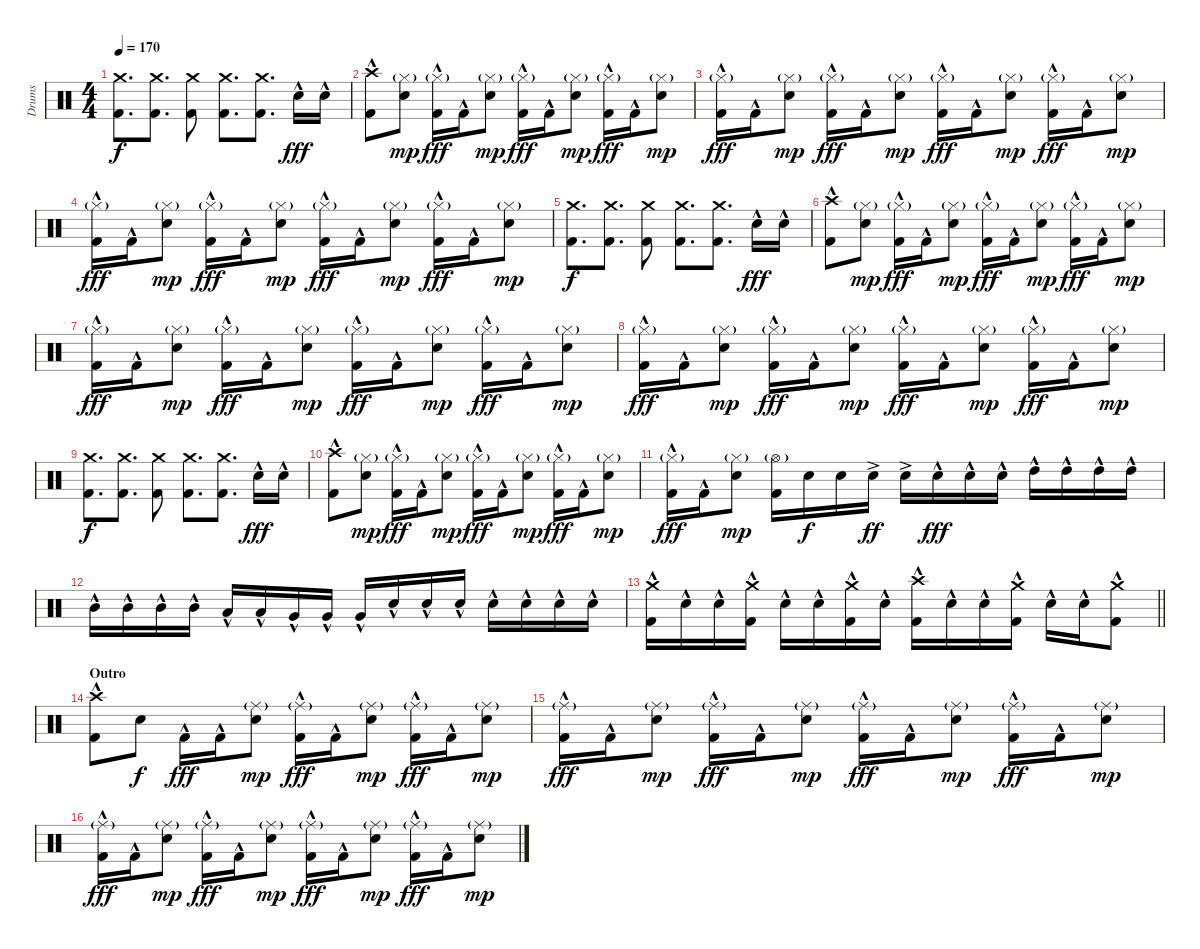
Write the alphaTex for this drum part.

\track ("Drums" "Drums") {instrument percussion}
\staff {score}
\articulation defaults
\ts (4 4)
\tempo 170
\clef neutral
\ks c
("Crash medium (hit)" "Kick (hit) 2").8{d dy f} ("Crash medium (hit)" "Kick (hit) 2").8{d} ("Crash medium (hit)" "Kick (hit) 2").8 ("Crash medium (hit)" "Kick (hit) 2").8{d} ("Crash medium (hit)" "Kick (hit) 2").8{d} "Snare (hit) 2"{hac}.16{dy fff} "Snare (hit) 2"{hac}.16 |
("Crash high (hit)" "Kick (hit) 2"{hac}).8 ("Hi-Hat (closed)"{g} "Snare (hit) 2").8{dy mp} ("Hi-Hat (closed)"{g} "Kick (hit) 2"{hac}).16{dy fff} "Kick (hit) 2"{hac}.16 ("Hi-Hat (closed)"{g} "Snare (hit) 2").8{dy mp} ("Hi-Hat (closed)"{g} "Kick (hit) 2"{hac}).16{dy fff} "Kick (hit) 2"{hac}.16 ("Hi-Hat (closed)"{g} "Snare (hit) 2").8{dy mp} ("Hi-Hat (closed)"{g} "Kick (hit) 2"{hac}).16{dy fff} "Kick (hit) 2"{hac}.16 ("Hi-Hat (closed)"{g} "Snare (hit) 2").8{dy mp} |
("Hi-Hat (closed)"{g} "Kick (hit) 2"{hac}).16{dy fff} "Kick (hit) 2"{hac}.16 ("Hi-Hat (closed)"{g} "Snare (hit) 2").8{dy mp} ("Hi-Hat (closed)"{g} "Kick (hit) 2"{hac}).16{dy fff} "Kick (hit) 2"{hac}.16 ("Hi-Hat (closed)"{g} "Snare (hit) 2").8{dy mp} ("Hi-Hat (closed)"{g} "Kick (hit) 2"{hac}).16{dy fff} "Kick (hit) 2"{hac}.16 ("Hi-Hat (closed)"{g} "Snare (hit) 2").8{dy mp} ("Hi-Hat (closed)"{g} "Kick (hit) 2"{hac}).16{dy fff} "Kick (hit) 2"{hac}.16 ("Hi-Hat (closed)"{g} "Snare (hit) 2").8{dy mp} |
("Hi-Hat (closed)"{g} "Kick (hit) 2"{hac}).16{dy fff} "Kick (hit) 2"{hac}.16 ("Hi-Hat (closed)"{g} "Snare (hit) 2").8{dy mp} ("Hi-Hat (closed)"{g} "Kick (hit) 2"{hac}).16{dy fff} "Kick (hit) 2"{hac}.16 ("Hi-Hat (closed)"{g} "Snare (hit) 2").8{dy mp} ("Hi-Hat (closed)"{g} "Kick (hit) 2"{hac}).16{dy fff} "Kick (hit) 2"{hac}.16 ("Hi-Hat (closed)"{g} "Snare (hit) 2").8{dy mp} ("Hi-Hat (closed)"{g} "Kick (hit) 2"{hac}).16{dy fff} "Kick (hit) 2"{hac}.16 ("Hi-Hat (closed)"{g} "Snare (hit) 2").8{dy mp} |
("Crash medium (hit)" "Kick (hit) 2").8{d dy f} ("Crash medium (hit)" "Kick (hit) 2").8{d} ("Crash medium (hit)" "Kick (hit) 2").8 ("Crash medium (hit)" "Kick (hit) 2").8{d} ("Crash medium (hit)" "Kick (hit) 2").8{d} "Snare (hit) 2"{hac}.16{dy fff} "Snare (hit) 2"{hac}.16 |
("Crash high (hit)" "Kick (hit) 2"{hac}).8 ("Hi-Hat (closed)"{g} "Snare (hit) 2").8{dy mp} ("Hi-Hat (closed)"{g} "Kick (hit) 2"{hac}).16{dy fff} "Kick (hit) 2"{hac}.16 ("Hi-Hat (closed)"{g} "Snare (hit) 2").8{dy mp} ("Hi-Hat (closed)"{g} "Kick (hit) 2"{hac}).16{dy fff} "Kick (hit) 2"{hac}.16 ("Hi-Hat (closed)"{g} "Snare (hit) 2").8{dy mp} ("Hi-Hat (closed)"{g} "Kick (hit) 2"{hac}).16{dy fff} "Kick (hit) 2"{hac}.16 ("Hi-Hat (closed)"{g} "Snare (hit) 2").8{dy mp} |
("Hi-Hat (closed)"{g} "Kick (hit) 2"{hac}).16{dy fff} "Kick (hit) 2"{hac}.16 ("Hi-Hat (closed)"{g} "Snare (hit) 2").8{dy mp} ("Hi-Hat (closed)"{g} "Kick (hit) 2"{hac}).16{dy fff} "Kick (hit) 2"{hac}.16 ("Hi-Hat (closed)"{g} "Snare (hit) 2").8{dy mp} ("Hi-Hat (closed)"{g} "Kick (hit) 2"{hac}).16{dy fff} "Kick (hit) 2"{hac}.16 ("Hi-Hat (closed)"{g} "Snare (hit) 2").8{dy mp} ("Hi-Hat (closed)"{g} "Kick (hit) 2"{hac}).16{dy fff} "Kick (hit) 2"{hac}.16 ("Hi-Hat (closed)"{g} "Snare (hit) 2").8{dy mp} |
("Hi-Hat (closed)"{g} "Kick (hit) 2"{hac}).16{dy fff} "Kick (hit) 2"{hac}.16 ("Hi-Hat (closed)"{g} "Snare (hit) 2").8{dy mp} ("Hi-Hat (closed)"{g} "Kick (hit) 2"{hac}).16{dy fff} "Kick (hit) 2"{hac}.16 ("Hi-Hat (closed)"{g} "Snare (hit) 2").8{dy mp} ("Hi-Hat (closed)"{g} "Kick (hit) 2"{hac}).16{dy fff} "Kick (hit) 2"{hac}.16 ("Hi-Hat (closed)"{g} "Snare (hit) 2").8{dy mp} ("Hi-Hat (closed)"{g} "Kick (hit) 2"{hac}).16{dy fff} "Kick (hit) 2"{hac}.16 ("Hi-Hat (closed)"{g} "Snare (hit) 2").8{dy mp} |
("Crash medium (hit)" "Kick (hit) 2").8{d dy f} ("Crash medium (hit)" "Kick (hit) 2").8{d} ("Crash medium (hit)" "Kick (hit) 2").8 ("Crash medium (hit)" "Kick (hit) 2").8{d} ("Crash medium (hit)" "Kick (hit) 2").8{d} "Snare (hit) 2"{hac}.16{dy fff} "Snare (hit) 2"{hac}.16 |
("Crash high (hit)" "Kick (hit) 2"{hac}).8 ("Hi-Hat (closed)"{g} "Snare (hit) 2").8{dy mp} ("Hi-Hat (closed)"{g} "Kick (hit) 2"{hac}).16{dy fff} "Kick (hit) 2"{hac}.16 ("Hi-Hat (closed)"{g} "Snare (hit) 2").8{dy mp} ("Hi-Hat (closed)"{g} "Kick (hit) 2"{hac}).16{dy fff} "Kick (hit) 2"{hac}.16 ("Hi-Hat (closed)"{g} "Snare (hit) 2").8{dy mp} ("Hi-Hat (closed)"{g} "Kick (hit) 2"{hac}).16{dy fff} "Kick (hit) 2"{hac}.16 ("Hi-Hat (closed)"{g} "Snare (hit) 2").8{dy mp} |
("Hi-Hat (closed)"{g} "Kick (hit) 2"{hac}).16{dy fff} "Kick (hit) 2"{hac}.16 ("Hi-Hat (closed)"{g} "Snare (hit) 2").8{dy mp} ("Hi-Hat (open)"{g} "Kick (hit) 2").16 "Snare (hit) 2".16{dy f} "Snare (hit) 2".16 "Snare (hit) 2"{ac}.16{dy ff} "Snare (hit) 2"{ac}.16 "Snare (hit) 2"{hac}.16{dy fff} "Snare (hit) 2"{hac}.16 "Snare (hit) 2"{hac}.16 "High Tom (hit)"{hac}.16 "High Tom (hit)"{hac}.16 "High Tom (hit)"{hac}.16 "High Tom (hit)"{hac}.16 |
"Mid Tom (hit)"{hac}.16 "Mid Tom (hit)"{hac}.16 "Mid Tom (hit)"{hac}.16 "Mid Tom (hit)"{hac}.16 "Low Tom (hit)"{hac}.16 "Low Tom (hit)"{hac}.16 "Very Low Tom (hit)"{hac}.16 "Very Low Tom (hit)"{hac}.16 "Very Low Tom (hit)"{hac}.16 "Snare (hit) 2"{hac}.16 "Snare (hit) 2"{hac}.16 "Snare (hit) 2"{hac}.16 "Snare (hit) 2"{hac}.16 "Snare (hit) 2"{hac}.16 "Snare (hit) 2"{hac}.16 "Snare (hit) 2"{hac}.16 |
\barLineRight lightlight
("Crash medium (hit)"{hac} "Kick (hit) 2"{hac}).16 "Snare (hit) 2"{hac}.16 "Snare (hit) 2"{hac}.16 ("Crash medium (hit)"{hac} "Kick (hit) 2"{hac}).16 "Snare (hit) 2"{hac}.16 "Snare (hit) 2"{hac}.16 ("Crash medium (hit)"{hac} "Kick (hit) 2"{hac}).16 "Snare (hit) 2"{hac}.16 ("Crash high (hit)"{hac} "Kick (hit) 2"{hac}).16 "Snare (hit) 2"{hac}.16 "Snare (hit) 2"{hac}.16 ("Crash medium (hit)"{hac} "Kick (hit) 2"{hac}).16 "Snare (hit) 2"{hac}.16 "Snare (hit) 2"{hac}.16 ("Crash medium (hit)"{hac} "Kick (hit) 2"{hac}).8 |
\section ("" "Outro")
("Crash high (hit)" "Kick (hit) 2"{hac}).8 "Snare (hit) 2".8{dy f} "Kick (hit) 2"{hac}.16{dy fff} "Kick (hit) 2"{hac}.16 ("Ride (middle)"{g} "Snare (hit) 2").8{dy mp} ("Ride (middle)"{g} "Kick (hit) 2"{hac}).16{dy fff} "Kick (hit) 2"{hac}.16 ("Ride (middle)"{g} "Snare (hit) 2").8{dy mp} ("Ride (middle)"{g} "Kick (hit) 2"{hac}).16{dy fff} "Kick (hit) 2"{hac}.16 ("Ride (middle)"{g} "Snare (hit) 2").8{dy mp} |
("Ride (middle)"{g} "Kick (hit) 2"{hac}).16{dy fff} "Kick (hit) 2"{hac}.16 ("Ride (middle)"{g} "Snare (hit) 2").8{dy mp} ("Ride (middle)"{g} "Kick (hit) 2"{hac}).16{dy fff} "Kick (hit) 2"{hac}.16 ("Ride (middle)"{g} "Snare (hit) 2").8{dy mp} ("Ride (middle)"{g} "Kick (hit) 2"{hac}).16{dy fff} "Kick (hit) 2"{hac}.16 ("Ride (middle)"{g} "Snare (hit) 2").8{dy mp} ("Ride (middle)"{g} "Kick (hit) 2"{hac}).16{dy fff} "Kick (hit) 2"{hac}.16 ("Ride (middle)"{g} "Snare (hit) 2").8{dy mp} |
("Ride (middle)"{g} "Kick (hit) 2"{hac}).16{dy fff} "Kick (hit) 2"{hac}.16 ("Ride (middle)"{g} "Snare (hit) 2").8{dy mp} ("Ride (middle)"{g} "Kick (hit) 2"{hac}).16{dy fff} "Kick (hit) 2"{hac}.16 ("Ride (middle)"{g} "Snare (hit) 2").8{dy mp} ("Ride (middle)"{g} "Kick (hit) 2"{hac}).16{dy fff} "Kick (hit) 2"{hac}.16 ("Ride (middle)"{g} "Snare (hit) 2").8{dy mp} ("Ride (middle)"{g} "Kick (hit) 2"{hac}).16{dy fff} "Kick (hit) 2"{hac}.16 ("Ride (middle)"{g} "Snare (hit) 2").8{dy mp}
